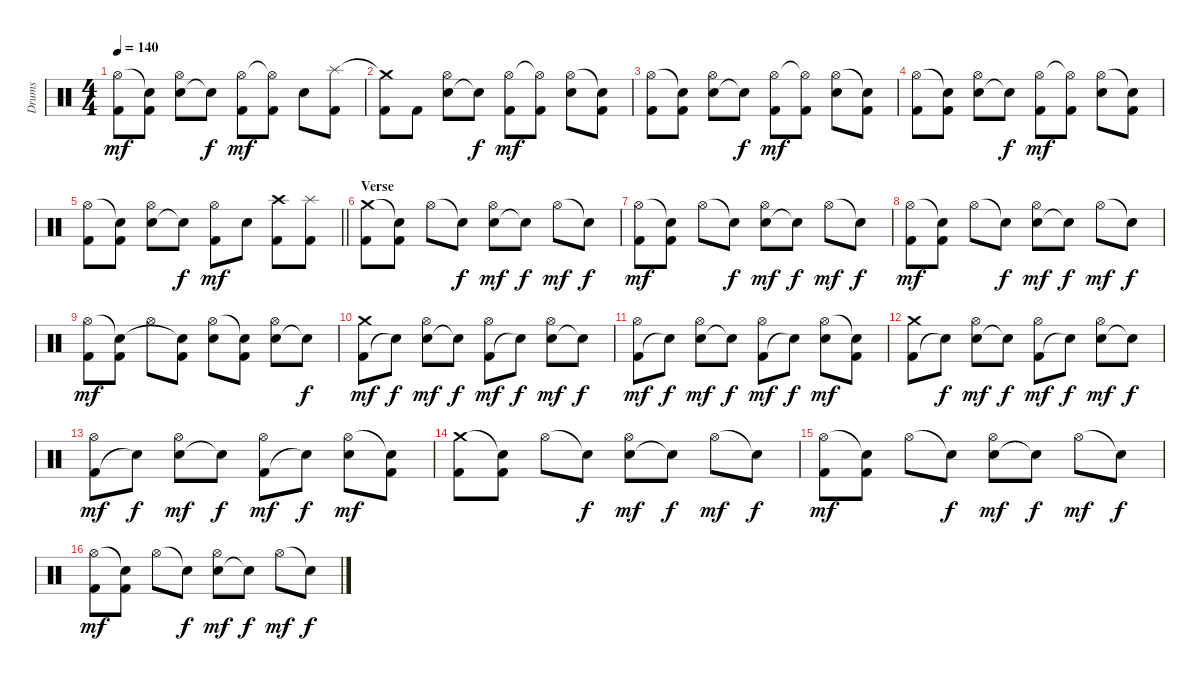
\track ("Drums" "Drums") {instrument percussion}
\staff {score}
\articulation defaults
\ts (4 4)
\tempo 140
\clef neutral
\ks c
("Kick (hit) 2" "Hi-Hat (open)").8{dy mf} ("Kick (hit) 2" "Snare (hit)"{t}).8 ("Snare (hit) 2" "Hi-Hat (open)").8 "Snare (hit)"{t}.8{dy f} ("Kick (hit) 2" "Hi-Hat (open)").8{dy mf} ("Kick (hit) 2" "Hi-Hat (open)"{t}).8 "Snare (hit) 2".8 ("Kick (hit) 2" "Splash (hit)").8 |
("Kick (hit) 2" "Crash medium (hit)"{t}).8 "Kick (hit) 2".8 ("Snare (hit) 2" "Hi-Hat (open)").8 "Snare (hit)"{t}.8{dy f} ("Kick (hit) 2" "Hi-Hat (open)").8{dy mf} ("Kick (hit) 2" "Hi-Hat (open)"{t}).8 ("Snare (hit) 2" "Hi-Hat (open)").8 ("Kick (hit) 2" "Snare (hit)"{t}).8 |
("Kick (hit) 2" "Hi-Hat (open)").8 ("Kick (hit) 2" "Snare (hit)"{t}).8 ("Snare (hit) 2" "Hi-Hat (open)").8 "Snare (hit)"{t}.8{dy f} ("Kick (hit) 2" "Hi-Hat (open)").8{dy mf} ("Kick (hit) 2" "Hi-Hat (open)"{t}).8 ("Snare (hit) 2" "Hi-Hat (open)").8 ("Kick (hit) 2" "Snare (hit)"{t}).8 |
("Kick (hit) 2" "Hi-Hat (open)").8 ("Kick (hit) 2" "Snare (hit)"{t}).8 ("Snare (hit) 2" "Hi-Hat (open)").8 "Snare (hit)"{t}.8{dy f} ("Kick (hit) 2" "Hi-Hat (open)").8{dy mf} ("Kick (hit) 2" "Hi-Hat (open)"{t}).8 ("Snare (hit) 2" "Hi-Hat (open)").8 ("Kick (hit) 2" "Snare (hit)"{t}).8 |
\barLineRight lightlight
("Kick (hit) 2" "Hi-Hat (open)").8 ("Kick (hit) 2" "Snare (hit)"{t}).8 ("Snare (hit) 2" "Hi-Hat (open)").8 "Snare (hit)"{t}.8{dy f} ("Kick (hit) 2" "Hi-Hat (open)").8{dy mf} "Snare (hit) 2".8 ("Kick (hit) 2" "Crash high (hit)").8 ("Kick (hit) 2" "Splash (hit)").8 |
\section ("" "Verse")
("Kick (hit) 2" "Crash medium (hit)").8 ("Kick (hit) 2" "Snare (hit)"{t}).8 "Hi-Hat (open)".8 "Snare (hit)"{t}.8{dy f} ("Snare (hit) 2" "Hi-Hat (open)").8{dy mf} "Snare (hit)"{t}.8{dy f} "Hi-Hat (open)".8{dy mf} "Snare (hit)"{t}.8{dy f} |
("Kick (hit) 2" "Hi-Hat (open)").8{dy mf} ("Kick (hit) 2" "Snare (hit)"{t}).8 "Hi-Hat (open)".8 "Snare (hit)"{t}.8{dy f} ("Snare (hit) 2" "Hi-Hat (open)").8{dy mf} "Snare (hit)"{t}.8{dy f} "Hi-Hat (open)".8{dy mf} "Snare (hit)"{t}.8{dy f} |
("Kick (hit) 2" "Hi-Hat (open)").8{dy mf} ("Kick (hit) 2" "Snare (hit)"{t}).8 "Hi-Hat (open)".8 "Snare (hit)"{t}.8{dy f} ("Snare (hit) 2" "Hi-Hat (open)").8{dy mf} "Snare (hit)"{t}.8{dy f} "Hi-Hat (open)".8{dy mf} "Snare (hit)"{t}.8{dy f} |
("Kick (hit) 2" "Hi-Hat (open)").8{dy mf} ("Kick (hit) 2" "Snare (hit)"{t}).8 "Hi-Hat (open)".8 ("Kick (hit) 2" "Snare (hit)"{t}).8 ("Snare (hit) 2" "Hi-Hat (open)").8 ("Kick (hit) 2" "Snare (hit)"{t}).8 ("Snare (hit) 2" "Hi-Hat (open)").8 "Snare (hit)"{t}.8{dy f} |
("Kick (hit) 2" "Crash medium (hit)").8{dy mf} "Snare (hit)"{t}.8{dy f} ("Snare (hit) 2" "Hi-Hat (open)").8{dy mf} "Snare (hit)"{t}.8{dy f} ("Kick (hit) 2" "Hi-Hat (open)").8{dy mf} "Snare (hit)"{t}.8{dy f} ("Snare (hit) 2" "Hi-Hat (open)").8{dy mf} "Snare (hit)"{t}.8{dy f} |
("Kick (hit) 2" "Hi-Hat (open)").8{dy mf} "Snare (hit)"{t}.8{dy f} ("Snare (hit) 2" "Hi-Hat (open)").8{dy mf} "Snare (hit)"{t}.8{dy f} ("Kick (hit) 2" "Hi-Hat (open)").8{dy mf} "Snare (hit)"{t}.8{dy f} ("Snare (hit) 2" "Hi-Hat (open)").8{dy mf} ("Kick (hit) 2" "Snare (hit)"{t}).8 |
("Kick (hit) 2" "Crash medium (hit)").8 "Snare (hit)"{t}.8{dy f} ("Snare (hit) 2" "Hi-Hat (open)").8{dy mf} "Snare (hit)"{t}.8{dy f} ("Kick (hit) 2" "Hi-Hat (open)").8{dy mf} "Snare (hit)"{t}.8{dy f} ("Snare (hit) 2" "Hi-Hat (open)").8{dy mf} "Snare (hit)"{t}.8{dy f} |
("Kick (hit) 2" "Hi-Hat (open)").8{dy mf} "Snare (hit)"{t}.8{dy f} ("Snare (hit) 2" "Hi-Hat (open)").8{dy mf} "Snare (hit)"{t}.8{dy f} ("Kick (hit) 2" "Hi-Hat (open)").8{dy mf} "Snare (hit)"{t}.8{dy f} ("Snare (hit) 2" "Hi-Hat (open)").8{dy mf} ("Kick (hit) 2" "Snare (hit)"{t}).8 |
("Kick (hit) 2" "Crash medium (hit)").8 ("Kick (hit) 2" "Snare (hit)"{t}).8 "Hi-Hat (open)".8 "Snare (hit)"{t}.8{dy f} ("Snare (hit) 2" "Hi-Hat (open)").8{dy mf} "Snare (hit)"{t}.8{dy f} "Hi-Hat (open)".8{dy mf} "Snare (hit)"{t}.8{dy f} |
("Kick (hit) 2" "Hi-Hat (open)").8{dy mf} ("Kick (hit) 2" "Snare (hit)"{t}).8 "Hi-Hat (open)".8 "Snare (hit)"{t}.8{dy f} ("Snare (hit) 2" "Hi-Hat (open)").8{dy mf} "Snare (hit)"{t}.8{dy f} "Hi-Hat (open)".8{dy mf} "Snare (hit)"{t}.8{dy f} |
("Kick (hit) 2" "Hi-Hat (open)").8{dy mf} ("Kick (hit) 2" "Snare (hit)"{t}).8 "Hi-Hat (open)".8 "Snare (hit)"{t}.8{dy f} ("Snare (hit) 2" "Hi-Hat (open)").8{dy mf} "Snare (hit)"{t}.8{dy f} "Hi-Hat (open)".8{dy mf} "Snare (hit)"{t}.8{dy f}
